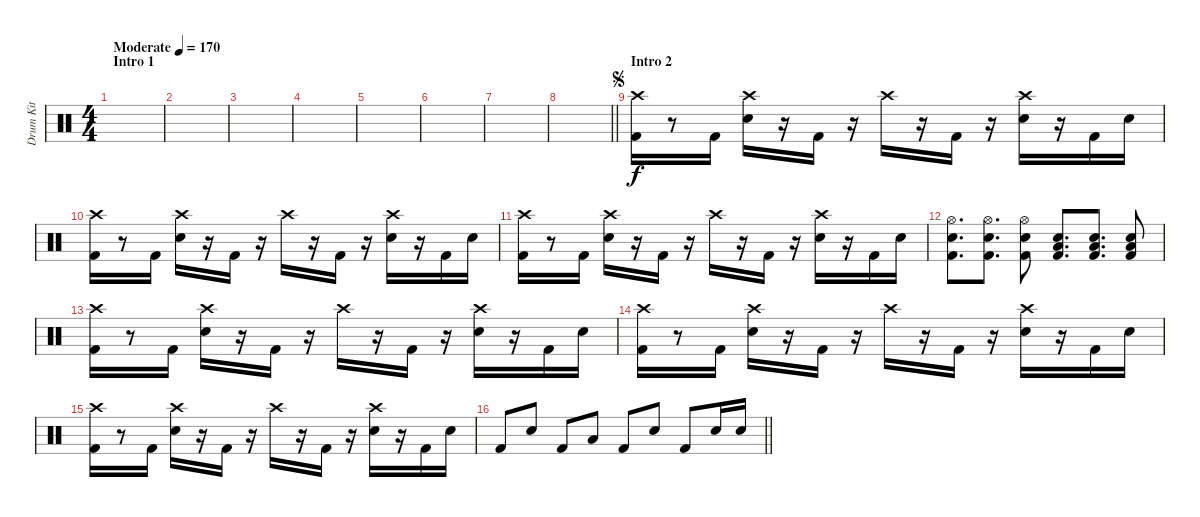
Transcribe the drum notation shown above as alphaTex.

\track ("Drum Kit" "Drum Kit") {mute instrument percussion}
\staff {score}
\articulation defaults
\ts (4 4)
\section ("" "Intro 1")
\tempo (170 "Moderate")
\clef neutral
\ks c
|
|
|
|
|
|
|
\barLineRight lightlight
|
\section ("" "Intro 2")
\jump segno
("Crash high (hit)" "Kick (hit) 2").16 r.8 "Kick (hit) 2".16 ("Crash high (hit)" "Electric Snare (hit)").16 r.16 "Kick (hit) 2".16 r.16 "Crash high (hit)".16 r.16 "Kick (hit) 2".16 r.16 ("Crash high (hit)" "Electric Snare (hit)").16 r.16 "Kick (hit) 2".16 "Electric Snare (hit)".16 |
("Crash high (hit)" "Kick (hit) 2").16 r.8 "Kick (hit) 2".16 ("Crash high (hit)" "Electric Snare (hit)").16 r.16 "Kick (hit) 2".16 r.16 "Crash high (hit)".16 r.16 "Kick (hit) 2".16 r.16 ("Crash high (hit)" "Electric Snare (hit)").16 r.16 "Kick (hit) 2".16 "Electric Snare (hit)".16 |
("Crash high (hit)" "Kick (hit) 2").16 r.8 "Kick (hit) 2".16 ("Crash high (hit)" "Electric Snare (hit)").16 r.16 "Kick (hit) 2".16 r.16 "Crash high (hit)".16 r.16 "Kick (hit) 2".16 r.16 ("Crash high (hit)" "Electric Snare (hit)").16 r.16 "Kick (hit) 2".16 "Electric Snare (hit)".16 |
("Hi-Hat (open)" "Electric Snare (hit)" "Kick (hit) 2").8{d} ("Hi-Hat (open)" "Electric Snare (hit)" "Kick (hit) 2").8{d} ("Hi-Hat (open)" "Electric Snare (hit)" "Kick (hit) 2").8 ("Low Floor Tom (hit)" "Electric Snare (hit)" "Kick (hit) 2").8{d} ("Low Floor Tom (hit)" "Electric Snare (hit)" "Kick (hit) 2").8{d} ("Low Floor Tom (hit)" "Electric Snare (hit)" "Kick (hit) 2").8 |
("Crash high (hit)" "Kick (hit) 2").16 r.8 "Kick (hit) 2".16 ("Crash high (hit)" "Electric Snare (hit)").16 r.16 "Kick (hit) 2".16 r.16 "Crash high (hit)".16 r.16 "Kick (hit) 2".16 r.16 ("Crash high (hit)" "Electric Snare (hit)").16 r.16 "Kick (hit) 2".16 "Electric Snare (hit)".16 |
("Crash high (hit)" "Kick (hit) 2").16 r.8 "Kick (hit) 2".16 ("Crash high (hit)" "Electric Snare (hit)").16 r.16 "Kick (hit) 2".16 r.16 "Crash high (hit)".16 r.16 "Kick (hit) 2".16 r.16 ("Crash high (hit)" "Electric Snare (hit)").16 r.16 "Kick (hit) 2".16 "Electric Snare (hit)".16 |
("Crash high (hit)" "Kick (hit) 2").16 r.8 "Kick (hit) 2".16 ("Crash high (hit)" "Electric Snare (hit)").16 r.16 "Kick (hit) 2".16 r.16 "Crash high (hit)".16 r.16 "Kick (hit) 2".16 r.16 ("Crash high (hit)" "Electric Snare (hit)").16 r.16 "Kick (hit) 2".16 "Electric Snare (hit)".16 |
\barLineRight lightlight "Kick (hit) 2".8 "Electric Snare (hit)".8 "Kick (hit) 2".8 "Low Tom (hit)".8 "Kick (hit) 2".8 "Electric Snare (hit)".8 "Kick (hit) 2".8 "Electric Snare (hit)".16 "Electric Snare (hit)".16
